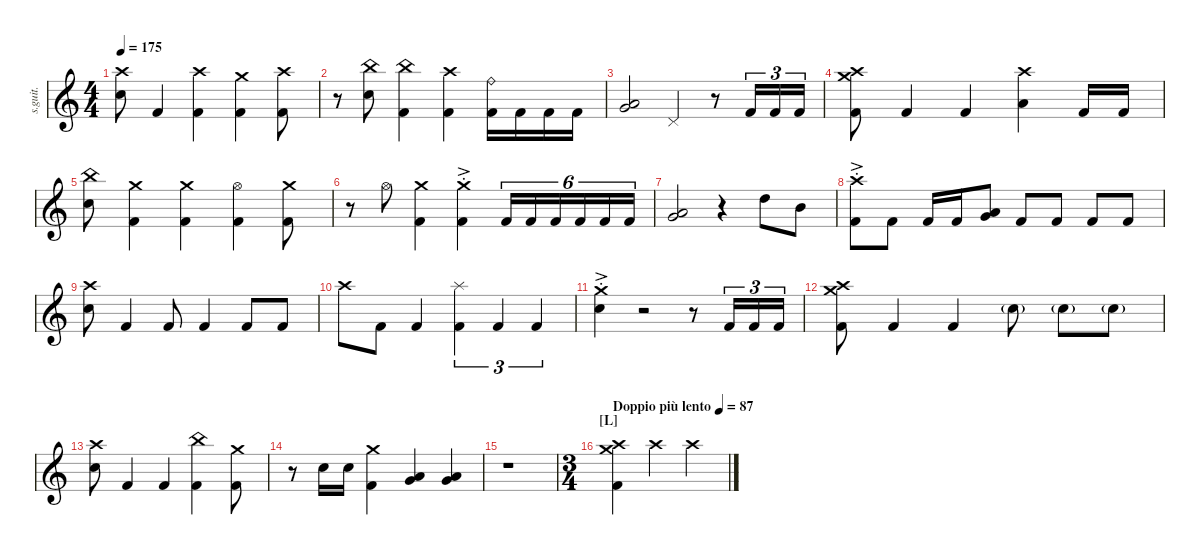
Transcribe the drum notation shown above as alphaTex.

\defaultSystemsLayout 4
\hideDynamics
\bracketExtendMode nobrackets
\track ("" "s.guit.") {instrument percussion}
\staff {score}
\articulation defaults
\ts (4 4)
\tempo 175
\clef g2
\ks c
("Crash high (hit)" "Snare (hit) 2").8{dy ff} "Kick (hit) 2".4 ("Crash high (hit)" "Kick (hit) 2").4 ("Crash medium (hit)" "Kick (hit) 2").4 ("Crash high (hit)" "Kick (hit) 2").8 |
r.8 ("China (hit)" "Snare (hit) 2").8 ("China (hit)" "Kick (hit) 2").4 ("Crash high (hit)" "Kick (hit) 2").4 ("Ride (bell)" "Kick (hit) 2").16 "Kick (hit) 2".16 "Kick (hit) 2".16 "Kick (hit) 2".16 |
("Low Tom (hit)" "Very Low Tom (hit)").2 "Pedal Hi-Hat (hit)".4 r.8 "Kick (hit) 2".16{tu (3 2)} "Kick (hit) 2".16{tu (3 2)} "Kick (hit) 2".16{tu (3 2)} |
("Crash medium (hit)" "Crash high (hit)" "Kick (hit) 2").8 "Kick (hit) 2".4 "Kick (hit) 2".4 ("Crash high (hit)" "Low Tom (hit)").4 "Kick (hit) 2".16 "Kick (hit) 2".16 |
("China (hit)" "Snare (hit) 2").8 ("Crash medium (hit)" "Kick (hit) 2").4 ("Crash medium (hit)" "Kick (hit) 2").4 ("Hi-Hat (open)" "Kick (hit) 2").4 ("Crash medium (hit)" "Kick (hit) 2").8 |
r.8 "Hi-Hat (open)".8 ("Crash medium (hit)" "Kick (hit) 2").4 ("Crash medium (hit)"{ac st} "Kick (hit) 2").4 "Kick (hit) 2".16{tu (6 4)} "Kick (hit) 2".16{tu (6 4)} "Kick (hit) 2".16{tu (6 4)} "Kick (hit) 2".16{tu (6 4)} "Kick (hit) 2".16{tu (6 4)} "Kick (hit) 2".16{tu (6 4)} |
("Low Tom (hit)" "Very Low Tom (hit)").2 r.4 "High Tom (hit)".8 "Mid Tom (hit)".8 |
("Crash high (hit)"{ac st} "Kick (hit) 2").8 "Kick (hit) 2".8 "Kick (hit) 2".16 "Kick (hit) 2".16 ("Low Tom (hit)" "Very Low Tom (hit)").8 "Kick (hit) 2".8 "Kick (hit) 2".8 "Kick (hit) 2".8 "Kick (hit) 2".8 |
("Crash high (hit)" "Snare (hit) 2").8 "Kick (hit) 2".4 "Kick (hit) 2".8 "Kick (hit) 2".4 "Kick (hit) 2".8 "Kick (hit) 2".8 |
"Crash high (hit)".8 "Kick (hit) 2".8 "Kick (hit) 2".4 ("Splash (hit)" "Kick (hit) 2").4{tu (3 2)} "Kick (hit) 2".4{tu (3 2)} "Kick (hit) 2".4{tu (3 2)} |
("Crash medium (hit)"{ac st} "Snare (hit) 2").4 r.2 r.8 "Kick (hit) 2".16{tu (3 2)} "Kick (hit) 2".16{tu (3 2)} "Kick (hit) 2".16{tu (3 2)} |
("Crash medium (hit)" "Crash high (hit)" "Kick (hit) 2").8 "Kick (hit) 2".4 "Kick (hit) 2".4 "Snare (hit) 2"{g}.8 "Snare (hit) 2"{g}.8 "Snare (hit) 2"{g}.8 |
("Crash high (hit)" "Snare (hit) 2").8 "Kick (hit) 2".4 "Kick (hit) 2".4 ("China (hit)" "Kick (hit) 2").4 ("Crash medium (hit)" "Kick (hit) 2").8 |
r.8 "Snare (hit) 2".16 "Snare (hit) 2".16 ("Crash medium (hit)" "Kick (hit) 2").4 ("Low Tom (hit)" "Very Low Tom (hit)").4 ("Low Tom (hit)" "Very Low Tom (hit)").4 |
r.1 |
\ts (3 4)
\beaming (8 2 2 2 2)
\section ("L" "")
\tempo (87 "Doppio più lento")
("Crash medium (hit)" "Crash high (hit)" "Kick (hit) 2").4 "Crash high (hit)".4 "Crash high (hit)".4
